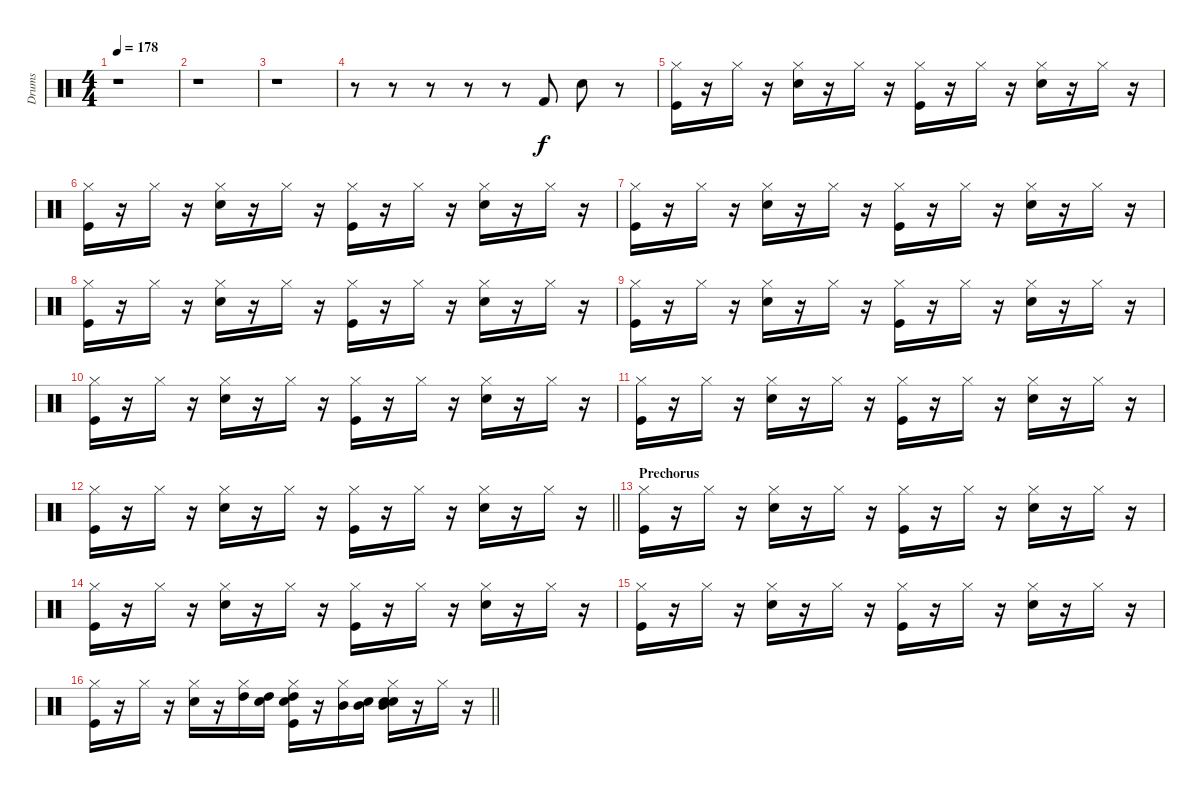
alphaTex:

\track ("Drums               " "Drums     ") {instrument percussion}
\staff {score}
\articulation defaults
\ts (4 4)
\tempo 178
\clef neutral
\ks c
r.1{dy f} |
r.1 |
r.1 |
r.8 r.8 r.8 r.8 r.8 "Kick (hit) 2".8 "Snare (hit) 2".8 r.8 |
("Hi-Hat (closed)" "Kick (hit)").16 r.16 "Hi-Hat (closed)".16 r.16 ("Hi-Hat (closed)" "Snare (hit) 2").16 r.16 "Hi-Hat (closed)".16 r.16 ("Hi-Hat (closed)" "Kick (hit)").16 r.16 "Hi-Hat (closed)".16 r.16 ("Hi-Hat (closed)" "Snare (hit) 2").16 r.16 "Hi-Hat (closed)".16 r.16 |
("Hi-Hat (closed)" "Kick (hit)").16 r.16 "Hi-Hat (closed)".16 r.16 ("Hi-Hat (closed)" "Snare (hit) 2").16 r.16 "Hi-Hat (closed)".16 r.16 ("Hi-Hat (closed)" "Kick (hit)").16 r.16 "Hi-Hat (closed)".16 r.16 ("Hi-Hat (closed)" "Snare (hit) 2").16 r.16 "Hi-Hat (closed)".16 r.16 |
("Hi-Hat (closed)" "Kick (hit)").16 r.16 "Hi-Hat (closed)".16 r.16 ("Hi-Hat (closed)" "Snare (hit) 2").16 r.16 "Hi-Hat (closed)".16 r.16 ("Hi-Hat (closed)" "Kick (hit)").16 r.16 "Hi-Hat (closed)".16 r.16 ("Hi-Hat (closed)" "Snare (hit) 2").16 r.16 "Hi-Hat (closed)".16 r.16 |
("Hi-Hat (closed)" "Kick (hit)").16 r.16 "Hi-Hat (closed)".16 r.16 ("Hi-Hat (closed)" "Snare (hit) 2").16 r.16 "Hi-Hat (closed)".16 r.16 ("Hi-Hat (closed)" "Kick (hit)").16 r.16 "Hi-Hat (closed)".16 r.16 ("Hi-Hat (closed)" "Snare (hit) 2").16 r.16 "Hi-Hat (closed)".16 r.16 |
("Hi-Hat (closed)" "Kick (hit)").16 r.16 "Hi-Hat (closed)".16 r.16 ("Hi-Hat (closed)" "Snare (hit) 2").16 r.16 "Hi-Hat (closed)".16 r.16 ("Hi-Hat (closed)" "Kick (hit)").16 r.16 "Hi-Hat (closed)".16 r.16 ("Hi-Hat (closed)" "Snare (hit) 2").16 r.16 "Hi-Hat (closed)".16 r.16 |
("Hi-Hat (closed)" "Kick (hit)").16 r.16 "Hi-Hat (closed)".16 r.16 ("Hi-Hat (closed)" "Snare (hit) 2").16 r.16 "Hi-Hat (closed)".16 r.16 ("Hi-Hat (closed)" "Kick (hit)").16 r.16 "Hi-Hat (closed)".16 r.16 ("Hi-Hat (closed)" "Snare (hit) 2").16 r.16 "Hi-Hat (closed)".16 r.16 |
("Hi-Hat (closed)" "Kick (hit)").16 r.16 "Hi-Hat (closed)".16 r.16 ("Hi-Hat (closed)" "Snare (hit) 2").16 r.16 "Hi-Hat (closed)".16 r.16 ("Hi-Hat (closed)" "Kick (hit)").16 r.16 "Hi-Hat (closed)".16 r.16 ("Hi-Hat (closed)" "Snare (hit) 2").16 r.16 "Hi-Hat (closed)".16 r.16 |
\barLineRight lightlight
("Hi-Hat (closed)" "Kick (hit)").16 r.16 "Hi-Hat (closed)".16 r.16 ("Hi-Hat (closed)" "Snare (hit) 2").16 r.16 "Hi-Hat (closed)".16 r.16 ("Hi-Hat (closed)" "Kick (hit)").16 r.16 "Hi-Hat (closed)".16 r.16 ("Hi-Hat (closed)" "Snare (hit) 2").16 r.16 "Hi-Hat (closed)".16 r.16 |
\section ("" "Prechorus")
("Hi-Hat (closed)" "Kick (hit)").16 r.16 "Hi-Hat (closed)".16 r.16 ("Hi-Hat (closed)" "Snare (hit) 2").16 r.16 "Hi-Hat (closed)".16 r.16 ("Hi-Hat (closed)" "Kick (hit)").16 r.16 "Hi-Hat (closed)".16 r.16 ("Hi-Hat (closed)" "Snare (hit) 2").16 r.16 "Hi-Hat (closed)".16 r.16 |
("Hi-Hat (closed)" "Kick (hit)").16 r.16 "Hi-Hat (closed)".16 r.16 ("Hi-Hat (closed)" "Snare (hit) 2").16 r.16 "Hi-Hat (closed)".16 r.16 ("Hi-Hat (closed)" "Kick (hit)").16 r.16 "Hi-Hat (closed)".16 r.16 ("Hi-Hat (closed)" "Snare (hit) 2").16 r.16 "Hi-Hat (closed)".16 r.16 |
("Hi-Hat (closed)" "Kick (hit)").16 r.16 "Hi-Hat (closed)".16 r.16 ("Hi-Hat (closed)" "Snare (hit) 2").16 r.16 "Hi-Hat (closed)".16 r.16 ("Hi-Hat (closed)" "Kick (hit)").16 r.16 "Hi-Hat (closed)".16 r.16 ("Hi-Hat (closed)" "Snare (hit) 2").16 r.16 "Hi-Hat (closed)".16 r.16 |
\barLineRight lightlight
("Kick (hit)" "Hi-Hat (closed)").16 r.16 "Hi-Hat (closed)".16 r.16 ("Snare (hit) 2" "Hi-Hat (closed)").16 r.16 ("Hi-Hat (closed)" "High Tom (hit)").16 ("Snare (hit)" "High Tom (hit)").16 ("Snare (hit)" "Kick (hit)" "Hi-Hat (closed)" "High Tom (hit)").16 r.16 ("Hi-Hat (closed)" "Mid Tom (hit)").16 ("Snare (hit)" "Mid Tom (hit)").16 ("Snare (hit)" "Snare (hit) 2" "Hi-Hat (closed)" "Mid Tom (hit)").16 r.16 "Hi-Hat (closed)".16 r.16
